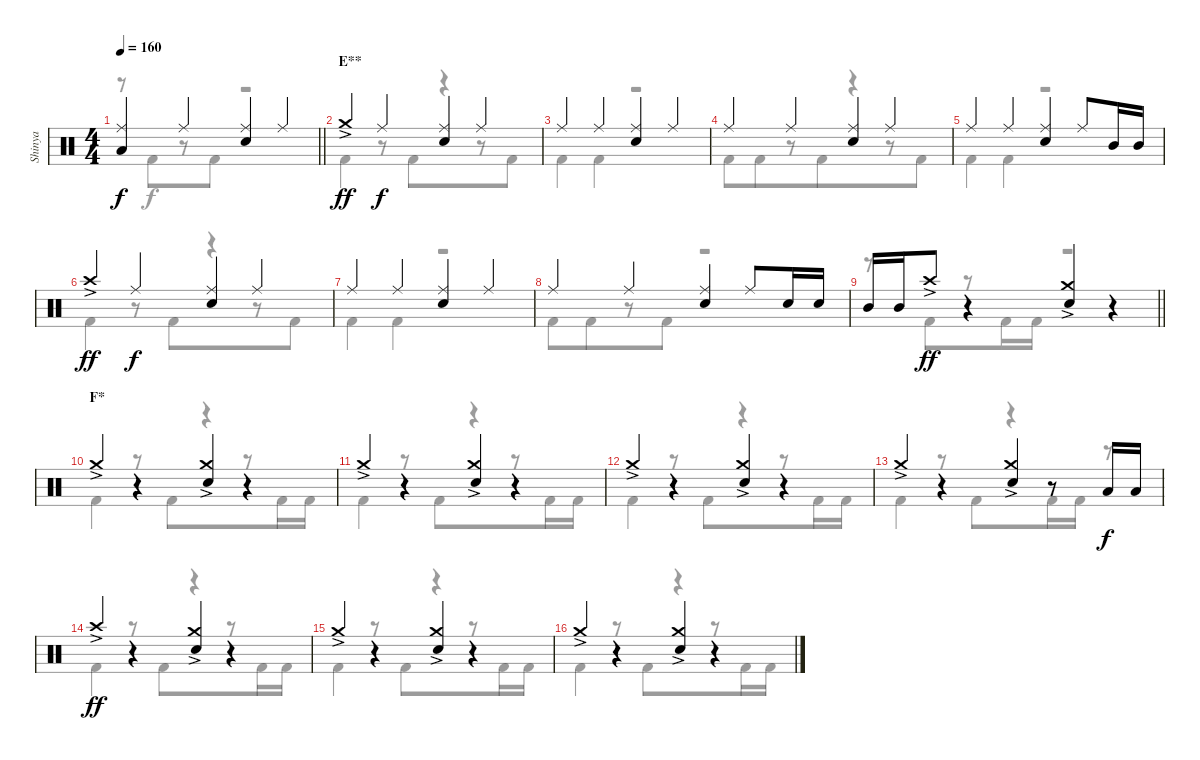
\track ("Shinya" "Shinya") {instrument percussion}
\staff {score}
\articulation defaults
\voice
\ts (4 4)
\tempo 160
\clef neutral
\barLineRight lightlight
\ks c
("Ride (middle)" "Low Tom (hit)").4{dy f beam merge} "Ride (middle)".4{beam merge} ("Ride (middle)" "Electric Snare (hit)").4{beam merge} "Ride (middle)".4 |
\section ("" "E**")
"Crash medium (hit)"{ac}.4{dy ff beam merge} "Ride (middle)".4{dy f beam merge} ("Ride (middle)" "Electric Snare (hit)").4{beam merge} "Ride (middle)".4 |
"Ride (middle)".4{beam merge} "Ride (middle)".4{beam merge} ("Ride (middle)" "Electric Snare (hit)").4{beam merge} "Ride (middle)".4 |
"Ride (middle)".4{beam merge} "Ride (middle)".4{beam merge} ("Ride (middle)" "Electric Snare (hit)").4{beam merge} "Ride (middle)".4 |
"Ride (middle)".4{beam merge} "Ride (middle)".4{beam merge} ("Ride (middle)" "Electric Snare (hit)").4 "Ride (middle)".8{beam merge} "Mid Tom (hit)".16{beam merge} "Mid Tom (hit)".16 |
"Crash high (hit)"{ac}.4{dy ff beam merge} "Ride (middle)".4{dy f beam merge} ("Ride (middle)" "Electric Snare (hit)").4{beam merge} "Ride (middle)".4 |
"Ride (middle)".4{beam merge} "Ride (middle)".4{beam merge} ("Ride (middle)" "Electric Snare (hit)").4{beam merge} "Ride (middle)".4 |
"Ride (middle)".4{beam merge} "Ride (middle)".4{beam merge} ("Ride (middle)" "Electric Snare (hit)").4{beam merge} "Ride (middle)".8{beam merge} "Electric Snare (hit)".16{beam merge} "Electric Snare (hit)".16 |
\barLineRight lightlight "Mid Tom (hit)".16{beam merge} "Mid Tom (hit)".16{beam merge} "Crash high (hit)"{ac}.8{dy ff beam merge}
r.4{beam merge} ("Crash medium (hit)"{ac} "Electric Snare (hit)").4 r.4 |
\section ("" "F*")
"Crash medium (hit)"{ac}.4{beam merge} r.4{beam merge} ("Crash medium (hit)"{ac} "Electric Snare (hit)").4{beam merge} r.4 |
"Crash medium (hit)"{ac}.4{beam merge} r.4{beam merge} ("Crash medium (hit)"{ac} "Electric Snare (hit)").4{beam merge} r.4 |
"Crash medium (hit)"{ac}.4{beam merge} r.4{beam merge} ("Crash medium (hit)"{ac} "Electric Snare (hit)").4{beam merge} r.4 |
"Crash medium (hit)"{ac}.4{beam merge} r.4{beam merge} ("Crash medium (hit)"{ac} "Electric Snare (hit)").4{beam merge} r.8 "Low Tom (hit)".16{dy f} "Low Tom (hit)".16 |
"Crash high (hit)"{ac}.4{dy ff beam merge} r.4{beam merge} ("Crash medium (hit)"{ac} "Electric Snare (hit)").4{beam merge} r.4 |
"Crash medium (hit)"{ac}.4{beam merge} r.4{beam merge} ("Crash medium (hit)"{ac} "Electric Snare (hit)").4{beam merge} r.4 |
"Crash medium (hit)"{ac}.4{beam merge} r.4{beam merge} ("Crash medium (hit)"{ac} "Electric Snare (hit)").4{beam merge} r.4
\voice
\clef neutral
\ottava regular
\simile none
\barLineRight lightlight
\ks c
r.8{dy f beam merge} "Kick (hit) 2".8{beam merge} r.8{beam merge} "Kick (hit) 2".8{beam merge} r.2 |
"Kick (hit) 2".4{beam merge} r.8{beam merge} "Kick (hit) 2".8{beam merge} r.4{beam merge} r.8 "Kick (hit) 2".8 |
"Kick (hit) 2".4{beam merge} "Kick (hit) 2".4{beam merge} r.2 |
"Kick (hit) 2".8{beam merge} "Kick (hit) 2".8{beam merge} r.8{beam merge} "Kick (hit) 2".8{beam merge} r.4 r.8{beam merge} "Kick (hit) 2".8 |
"Kick (hit) 2".4{beam merge} "Kick (hit) 2".4{beam merge} r.2 |
"Kick (hit) 2".4{beam merge} r.8{beam merge} "Kick (hit) 2".8{beam merge} r.4{beam merge} r.8 "Kick (hit) 2".8 |
"Kick (hit) 2".4{beam merge} "Kick (hit) 2".4{beam merge} r.2 |
"Kick (hit) 2".8{beam merge} "Kick (hit) 2".8{beam merge} r.8{beam merge} "Kick (hit) 2".8 r.2 |
\barLineRight lightlight
r.8{beam merge} "Kick (hit) 2".8{beam merge} r.8 "Kick (hit) 2".16{beam merge} "Kick (hit) 2".16{beam merge} r.2 |
"Kick (hit) 2".4{beam merge} r.8{beam merge} "Kick (hit) 2".8{beam merge} r.4{beam merge} r.8 "Kick (hit) 2".16{beam merge} "Kick (hit) 2".16 |
"Kick (hit) 2".4{beam merge} r.8{beam merge} "Kick (hit) 2".8{beam merge} r.4{beam merge} r.8 "Kick (hit) 2".16{beam merge} "Kick (hit) 2".16 |
"Kick (hit) 2".4{beam merge} r.8{beam merge} "Kick (hit) 2".8{beam merge} r.4{beam merge} r.8 "Kick (hit) 2".16{beam merge} "Kick (hit) 2".16 |
"Kick (hit) 2".4{beam merge} r.8{beam merge} "Kick (hit) 2".8{beam merge} r.4 "Kick (hit) 2".16 "Kick (hit) 2".16{beam merge} r.8 |
"Kick (hit) 2".4{beam merge} r.8{beam merge} "Kick (hit) 2".8{beam merge} r.4{beam merge} r.8 "Kick (hit) 2".16{beam merge} "Kick (hit) 2".16 |
"Kick (hit) 2".4{beam merge} r.8{beam merge} "Kick (hit) 2".8{beam merge} r.4{beam merge} r.8 "Kick (hit) 2".16{beam merge} "Kick (hit) 2".16 |
"Kick (hit) 2".4{beam merge} r.8{beam merge} "Kick (hit) 2".8{beam merge} r.4{beam merge} r.8 "Kick (hit) 2".16{beam merge} "Kick (hit) 2".16
